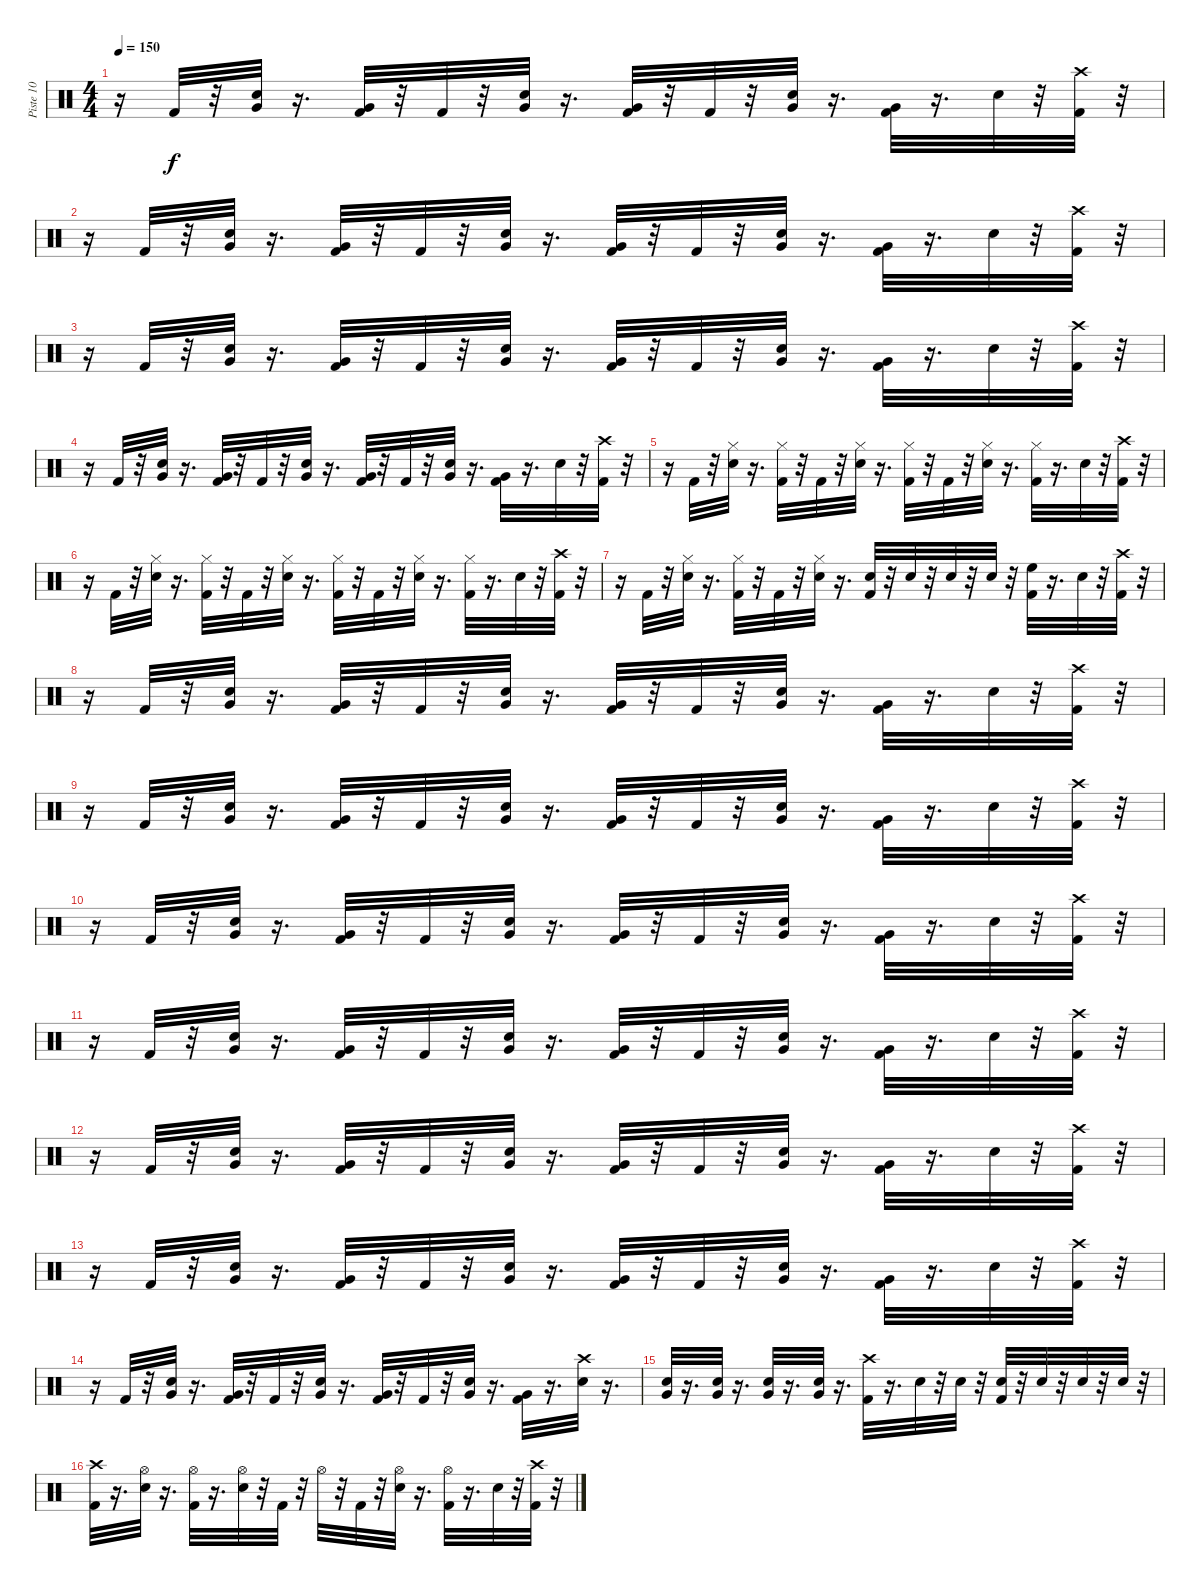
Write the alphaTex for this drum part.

\track ("Piste 10" "Piste 10") {instrument percussion}
\staff {score}
\articulation defaults
\ts (4 4)
\tempo 150
\clef neutral
\ks c
r.16{dy f} "Kick (hit) 2".32 r.32 ("Very Low Tom (hit)" "Snare (hit) 2").32 r.16{d} ("Kick (hit) 2" "Very Low Tom (hit)").32 r.32 "Kick (hit) 2".32 r.32 ("Very Low Tom (hit)" "Snare (hit) 2").32 r.16{d} ("Kick (hit) 2" "Very Low Tom (hit)").32 r.32 "Kick (hit) 2".32 r.32 ("Very Low Tom (hit)" "Snare (hit) 2").32 r.16{d} ("Kick (hit) 2" "Very Low Tom (hit)").32 r.16{d} "Snare (hit) 2".32 r.32 ("Kick (hit) 2" "Crash high (hit)").32 r.32 |
r.16 "Kick (hit) 2".32 r.32 ("Very Low Tom (hit)" "Snare (hit) 2").32 r.16{d} ("Kick (hit) 2" "Very Low Tom (hit)").32 r.32 "Kick (hit) 2".32 r.32 ("Very Low Tom (hit)" "Snare (hit) 2").32 r.16{d} ("Kick (hit) 2" "Very Low Tom (hit)").32 r.32 "Kick (hit) 2".32 r.32 ("Very Low Tom (hit)" "Snare (hit) 2").32 r.16{d} ("Kick (hit) 2" "Very Low Tom (hit)").32 r.16{d} "Snare (hit) 2".32 r.32 ("Kick (hit) 2" "Crash high (hit)").32 r.32 |
r.16 "Kick (hit) 2".32 r.32 ("Very Low Tom (hit)" "Snare (hit) 2").32 r.16{d} ("Kick (hit) 2" "Very Low Tom (hit)").32 r.32 "Kick (hit) 2".32 r.32 ("Very Low Tom (hit)" "Snare (hit) 2").32 r.16{d} ("Kick (hit) 2" "Very Low Tom (hit)").32 r.32 "Kick (hit) 2".32 r.32 ("Very Low Tom (hit)" "Snare (hit) 2").32 r.16{d} ("Kick (hit) 2" "Very Low Tom (hit)").32 r.16{d} "Snare (hit) 2".32 r.32 ("Kick (hit) 2" "Crash high (hit)").32 r.32 |
r.16 "Kick (hit) 2".32 r.32 ("Very Low Tom (hit)" "Snare (hit) 2").32 r.16{d} ("Kick (hit) 2" "Very Low Tom (hit)").32 r.32 "Kick (hit) 2".32 r.32 ("Very Low Tom (hit)" "Snare (hit) 2").32 r.16{d} ("Kick (hit) 2" "Very Low Tom (hit)").32 r.32 "Kick (hit) 2".32 r.32 ("Very Low Tom (hit)" "Snare (hit) 2").32 r.16{d} ("Kick (hit) 2" "Very Low Tom (hit)").32 r.16{d} "Snare (hit) 2".32 r.32 ("Kick (hit) 2" "Crash high (hit)").32 r.32 |
r.16 "Kick (hit) 2".32 r.32 ("Hi-Hat (closed)" "Snare (hit) 2").32 r.16{d} ("Hi-Hat (closed)" "Kick (hit) 2").32 r.32 "Kick (hit) 2".32 r.32 ("Hi-Hat (closed)" "Snare (hit) 2").32 r.16{d} ("Hi-Hat (closed)" "Kick (hit) 2").32 r.32 "Kick (hit) 2".32 r.32 ("Hi-Hat (closed)" "Snare (hit) 2").32 r.16{d} ("Hi-Hat (closed)" "Kick (hit) 2").32 r.16{d} "Snare (hit) 2".32 r.32 ("Crash high (hit)" "Kick (hit) 2").32 r.32 |
r.16 "Kick (hit) 2".32 r.32 ("Hi-Hat (closed)" "Snare (hit) 2").32 r.16{d} ("Hi-Hat (closed)" "Kick (hit) 2").32 r.32 "Kick (hit) 2".32 r.32 ("Hi-Hat (closed)" "Snare (hit) 2").32 r.16{d} ("Hi-Hat (closed)" "Kick (hit) 2").32 r.32 "Kick (hit) 2".32 r.32 ("Hi-Hat (closed)" "Snare (hit) 2").32 r.16{d} ("Hi-Hat (closed)" "Kick (hit) 2").32 r.16{d} "Snare (hit) 2".32 r.32 ("Crash high (hit)" "Kick (hit) 2").32 r.32 |
r.16 "Kick (hit) 2".32 r.32 ("Hi-Hat (closed)" "Snare (hit) 2").32 r.16{d} ("Hi-Hat (closed)" "Kick (hit) 2").32 r.32 "Kick (hit) 2".32 r.32 ("Hi-Hat (closed)" "Snare (hit) 2").32 r.16{d} ("Snare (hit) 2" "Kick (hit) 2").32 r.32 "Snare (hit) 2".32 r.32 "Snare (hit) 2".32 r.32 "Snare (hit) 2".32 r.32 ("High Floor Tom (hit)" "Kick (hit) 2").32 r.16{d} "Snare (hit) 2".32 r.32 ("Crash high (hit)" "Kick (hit) 2").32 r.32 |
r.16 "Kick (hit) 2".32 r.32 ("Very Low Tom (hit)" "Snare (hit) 2").32 r.16{d} ("Kick (hit) 2" "Very Low Tom (hit)").32 r.32 "Kick (hit) 2".32 r.32 ("Very Low Tom (hit)" "Snare (hit) 2").32 r.16{d} ("Kick (hit) 2" "Very Low Tom (hit)").32 r.32 "Kick (hit) 2".32 r.32 ("Very Low Tom (hit)" "Snare (hit) 2").32 r.16{d} ("Kick (hit) 2" "Very Low Tom (hit)").32 r.16{d} "Snare (hit) 2".32 r.32 ("Kick (hit) 2" "Crash high (hit)").32 r.32 |
r.16 "Kick (hit) 2".32 r.32 ("Very Low Tom (hit)" "Snare (hit) 2").32 r.16{d} ("Kick (hit) 2" "Very Low Tom (hit)").32 r.32 "Kick (hit) 2".32 r.32 ("Very Low Tom (hit)" "Snare (hit) 2").32 r.16{d} ("Kick (hit) 2" "Very Low Tom (hit)").32 r.32 "Kick (hit) 2".32 r.32 ("Very Low Tom (hit)" "Snare (hit) 2").32 r.16{d} ("Kick (hit) 2" "Very Low Tom (hit)").32 r.16{d} "Snare (hit) 2".32 r.32 ("Kick (hit) 2" "Crash high (hit)").32 r.32 |
r.16 "Kick (hit) 2".32 r.32 ("Very Low Tom (hit)" "Snare (hit) 2").32 r.16{d} ("Kick (hit) 2" "Very Low Tom (hit)").32 r.32 "Kick (hit) 2".32 r.32 ("Very Low Tom (hit)" "Snare (hit) 2").32 r.16{d} ("Kick (hit) 2" "Very Low Tom (hit)").32 r.32 "Kick (hit) 2".32 r.32 ("Very Low Tom (hit)" "Snare (hit) 2").32 r.16{d} ("Kick (hit) 2" "Very Low Tom (hit)").32 r.16{d} "Snare (hit) 2".32 r.32 ("Kick (hit) 2" "Crash high (hit)").32 r.32 |
r.16 "Kick (hit) 2".32 r.32 ("Very Low Tom (hit)" "Snare (hit) 2").32 r.16{d} ("Kick (hit) 2" "Very Low Tom (hit)").32 r.32 "Kick (hit) 2".32 r.32 ("Very Low Tom (hit)" "Snare (hit) 2").32 r.16{d} ("Kick (hit) 2" "Very Low Tom (hit)").32 r.32 "Kick (hit) 2".32 r.32 ("Very Low Tom (hit)" "Snare (hit) 2").32 r.16{d} ("Kick (hit) 2" "Very Low Tom (hit)").32 r.16{d} "Snare (hit) 2".32 r.32 ("Kick (hit) 2" "Crash high (hit)").32 r.32 |
r.16 "Kick (hit) 2".32 r.32 ("Very Low Tom (hit)" "Snare (hit) 2").32 r.16{d} ("Kick (hit) 2" "Very Low Tom (hit)").32 r.32 "Kick (hit) 2".32 r.32 ("Very Low Tom (hit)" "Snare (hit) 2").32 r.16{d} ("Kick (hit) 2" "Very Low Tom (hit)").32 r.32 "Kick (hit) 2".32 r.32 ("Very Low Tom (hit)" "Snare (hit) 2").32 r.16{d} ("Kick (hit) 2" "Very Low Tom (hit)").32 r.16{d} "Snare (hit) 2".32 r.32 ("Kick (hit) 2" "Crash high (hit)").32 r.32 |
r.16 "Kick (hit) 2".32 r.32 ("Very Low Tom (hit)" "Snare (hit) 2").32 r.16{d} ("Kick (hit) 2" "Very Low Tom (hit)").32 r.32 "Kick (hit) 2".32 r.32 ("Very Low Tom (hit)" "Snare (hit) 2").32 r.16{d} ("Kick (hit) 2" "Very Low Tom (hit)").32 r.32 "Kick (hit) 2".32 r.32 ("Very Low Tom (hit)" "Snare (hit) 2").32 r.16{d} ("Kick (hit) 2" "Very Low Tom (hit)").32 r.16{d} "Snare (hit) 2".32 r.32 ("Kick (hit) 2" "Crash high (hit)").32 r.32 |
r.16 "Kick (hit) 2".32 r.32 ("Very Low Tom (hit)" "Snare (hit) 2").32 r.16{d} ("Kick (hit) 2" "Very Low Tom (hit)").32 r.32 "Kick (hit) 2".32 r.32 ("Very Low Tom (hit)" "Snare (hit) 2").32 r.16{d} ("Kick (hit) 2" "Very Low Tom (hit)").32 r.32 "Kick (hit) 2".32 r.32 ("Very Low Tom (hit)" "Snare (hit) 2").32 r.16{d} ("Very Low Tom (hit)" "Kick (hit) 2").32 r.16{d} ("Snare (hit) 2" "Crash high (hit)").32 r.16{d} |
("Very Low Tom (hit)" "Snare (hit) 2").32 r.16{d} ("Very Low Tom (hit)" "Snare (hit) 2").32 r.16{d} ("Very Low Tom (hit)" "Snare (hit) 2").32 r.16{d} ("Very Low Tom (hit)" "Snare (hit) 2").32 r.16{d} ("Crash high (hit)" "Kick (hit) 2").32 r.16{d} "Snare (hit) 2".32 r.32 "Snare (hit) 2".32 r.32 ("Kick (hit) 2" "Snare (hit) 2").32 r.32 "Snare (hit) 2".32 r.32 "Snare (hit) 2".32 r.32 "Snare (hit) 2".32 r.32 |
("Crash high (hit)" "Kick (hit) 2").32 r.16{d} ("Hi-Hat (open)" "Snare (hit) 2").32 r.16{d} ("Hi-Hat (open)" "Kick (hit) 2").32 r.16{d} ("Hi-Hat (open)" "Snare (hit) 2").32 r.32 "Kick (hit) 2".32 r.32 "Hi-Hat (open)".32 r.32 "Kick (hit) 2".32 r.32 ("Hi-Hat (open)" "Snare (hit) 2").32 r.16{d} ("Hi-Hat (open)" "Kick (hit) 2").32 r.16{d} "Snare (hit) 2".32 r.32 ("Kick (hit) 2" "Crash high (hit)").32 r.32
